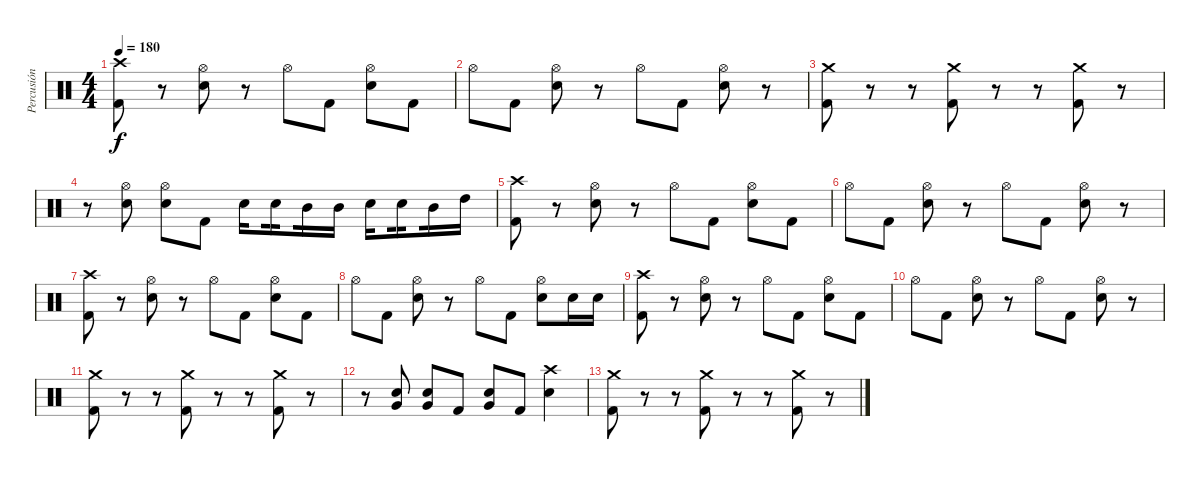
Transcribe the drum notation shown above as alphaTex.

\track ("Percusión" "Percusión") {instrument percussion}
\staff {score}
\articulation defaults
\ts (4 4)
\tempo 180
\clef neutral
\ks c
("Crash high (hit)" "Kick (hit) 2").8{dy f} r.8 ("Hi-Hat (open)" "Electric Snare (hit)").8 r.8 "Hi-Hat (open)".8 "Kick (hit) 2".8 ("Hi-Hat (open)" "Electric Snare (hit)").8 "Kick (hit) 2".8 |
"Hi-Hat (open)".8 "Kick (hit) 2".8 ("Hi-Hat (open)" "Electric Snare (hit)").8 r.8 "Hi-Hat (open)".8 "Kick (hit) 2".8 ("Hi-Hat (open)" "Electric Snare (hit)").8 r.8 |
("Crash medium (hit)" "Kick (hit) 2").8 r.8 r.8 ("Crash medium (hit)" "Kick (hit) 2").8 r.8 r.8 ("Crash medium (hit)" "Kick (hit) 2").8 r.8 |
r.8 ("Hi-Hat (open)" "Electric Snare (hit)").8 ("Hi-Hat (open)" "Electric Snare (hit)").8 "Kick (hit) 2".8 "Electric Snare (hit)".16{beam splitsecondary} "Electric Snare (hit)".16{beam splitsecondary} "Mid Tom (hit)".16 "Mid Tom (hit)".16 "Electric Snare (hit)".16{beam splitsecondary} "Electric Snare (hit)".16{beam splitsecondary} "Mid Tom (hit)".16 "High Tom (hit)".16 |
("Crash high (hit)" "Kick (hit) 2").8 r.8 ("Hi-Hat (open)" "Electric Snare (hit)").8 r.8 "Hi-Hat (open)".8 "Kick (hit) 2".8 ("Hi-Hat (open)" "Electric Snare (hit)").8 "Kick (hit) 2".8 |
"Hi-Hat (open)".8 "Kick (hit) 2".8 ("Hi-Hat (open)" "Electric Snare (hit)").8 r.8 "Hi-Hat (open)".8 "Kick (hit) 2".8 ("Hi-Hat (open)" "Electric Snare (hit)").8 r.8 |
("Crash high (hit)" "Kick (hit) 2").8 r.8 ("Hi-Hat (open)" "Electric Snare (hit)").8 r.8 "Hi-Hat (open)".8 "Kick (hit) 2".8 ("Hi-Hat (open)" "Electric Snare (hit)").8 "Kick (hit) 2".8 |
"Hi-Hat (open)".8 "Kick (hit) 2".8 ("Hi-Hat (open)" "Electric Snare (hit)").8 r.8 "Hi-Hat (open)".8 "Kick (hit) 2".8 ("Hi-Hat (open)" "Electric Snare (hit)").8 "Electric Snare (hit)".16 "Electric Snare (hit)".16 |
("Crash high (hit)" "Kick (hit) 2").8 r.8 ("Hi-Hat (open)" "Electric Snare (hit)").8 r.8 "Hi-Hat (open)".8 "Kick (hit) 2".8 ("Hi-Hat (open)" "Electric Snare (hit)").8 "Kick (hit) 2".8 |
"Hi-Hat (open)".8 "Kick (hit) 2".8 ("Hi-Hat (open)" "Electric Snare (hit)").8 r.8 "Hi-Hat (open)".8 "Kick (hit) 2".8 ("Hi-Hat (open)" "Electric Snare (hit)").8 r.8 |
("Crash medium (hit)" "Kick (hit) 2").8 r.8 r.8 ("Crash medium (hit)" "Kick (hit) 2").8 r.8 r.8 ("Crash medium (hit)" "Kick (hit) 2").8 r.8 |
r.8 ("Electric Snare (hit)" "Very Low Tom (hit)").8 ("Electric Snare (hit)" "Very Low Tom (hit)").8 "Kick (hit) 2".8 ("Electric Snare (hit)" "Very Low Tom (hit)").8 "Kick (hit) 2".8 ("Crash high (hit)" "Electric Snare (hit)").4 |
("Crash medium (hit)" "Kick (hit) 2").8 r.8 r.8 ("Crash medium (hit)" "Kick (hit) 2").8 r.8 r.8 ("Crash medium (hit)" "Kick (hit) 2").8 r.8
